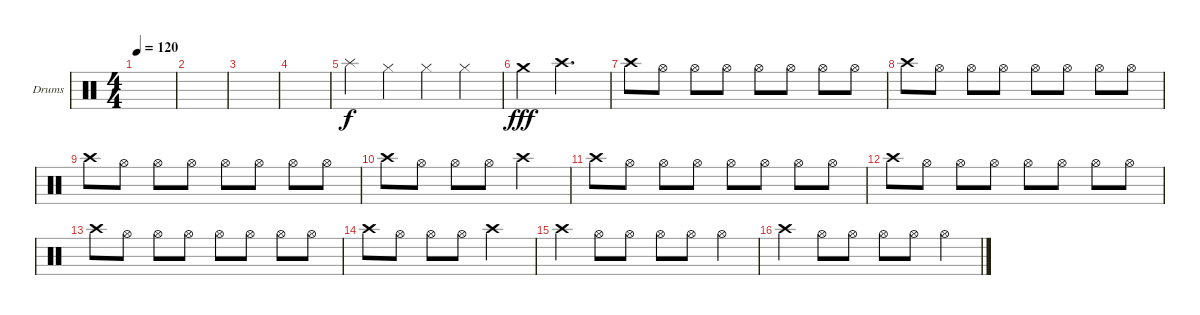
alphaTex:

\defaultSystemsLayout 4
\bracketExtendMode groupsimilarinstruments
\firstSystemTrackNameOrientation horizontal
\otherSystemsTrackNameOrientation horizontal
\track ("Пашок" "Drums") {instrument percussion}
\staff {score}
\articulation defaults
\ts (4 4)
\tempo 120
\clef neutral
\ks c
|
|
|
|
"Splash (hit)".4 "Hi-Hat (closed)".4 "Hi-Hat (closed)".4 "Hi-Hat (closed)".4 |
"Crash medium (hit)".4{dy fff} "Crash high (hit)".2{d} |
"Crash high (hit)".8 "Hi-Hat (open)".8 "Hi-Hat (open)".8 "Hi-Hat (open)".8 "Hi-Hat (open)".8 "Hi-Hat (open)".8 "Hi-Hat (open)".8 "Hi-Hat (open)".8 |
"Crash high (hit)".8 "Hi-Hat (open)".8 "Hi-Hat (open)".8 "Hi-Hat (open)".8 "Hi-Hat (open)".8 "Hi-Hat (open)".8 "Hi-Hat (open)".8 "Hi-Hat (open)".8 |
"Crash high (hit)".8 "Hi-Hat (open)".8 "Hi-Hat (open)".8 "Hi-Hat (open)".8 "Hi-Hat (open)".8 "Hi-Hat (open)".8 "Hi-Hat (open)".8 "Hi-Hat (open)".8 |
"Crash high (hit)".8 "Hi-Hat (open)".8 "Hi-Hat (open)".8 "Hi-Hat (open)".8 "Crash high (hit)".2 |
"Crash high (hit)".8 "Hi-Hat (open)".8 "Hi-Hat (open)".8 "Hi-Hat (open)".8 "Hi-Hat (open)".8 "Hi-Hat (open)".8 "Hi-Hat (open)".8 "Hi-Hat (open)".8 |
"Crash high (hit)".8 "Hi-Hat (open)".8 "Hi-Hat (open)".8 "Hi-Hat (open)".8 "Hi-Hat (open)".8 "Hi-Hat (open)".8 "Hi-Hat (open)".8 "Hi-Hat (open)".8 |
"Crash high (hit)".8 "Hi-Hat (open)".8 "Hi-Hat (open)".8 "Hi-Hat (open)".8 "Hi-Hat (open)".8 "Hi-Hat (open)".8 "Hi-Hat (open)".8 "Hi-Hat (open)".8 |
"Crash high (hit)".8 "Hi-Hat (open)".8 "Hi-Hat (open)".8 "Hi-Hat (open)".8 "Crash high (hit)".2 |
"Crash high (hit)".4 "Hi-Hat (open)".8 "Hi-Hat (open)".8 "Hi-Hat (open)".8 "Hi-Hat (open)".8 "Hi-Hat (open)".4 |
"Crash high (hit)".4 "Hi-Hat (open)".8 "Hi-Hat (open)".8 "Hi-Hat (open)".8 "Hi-Hat (open)".8 "Hi-Hat (open)".4
